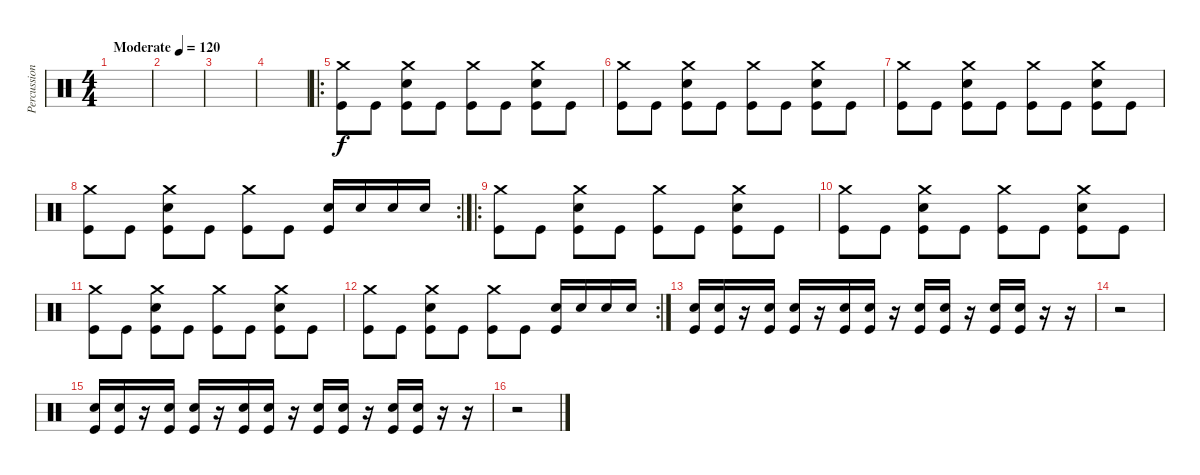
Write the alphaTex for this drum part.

\track ("Percussion" "Percussion") {instrument percussion}
\staff {score}
\articulation defaults
\ts (4 4)
\tempo (120 "Moderate")
\clef neutral
\ks c
|
|
|
|
\ro
("Crash medium (hit)" "Kick (hit)").8 "Kick (hit)".8 ("Crash medium (hit)" "Snare (hit) 2" "Kick (hit)").8 "Kick (hit)".8 ("Crash medium (hit)" "Kick (hit)").8 "Kick (hit)".8 ("Crash medium (hit)" "Snare (hit) 2" "Kick (hit)").8 "Kick (hit)".8 |
("Crash medium (hit)" "Kick (hit)").8 "Kick (hit)".8 ("Crash medium (hit)" "Snare (hit) 2" "Kick (hit)").8 "Kick (hit)".8 ("Crash medium (hit)" "Kick (hit)").8 "Kick (hit)".8 ("Crash medium (hit)" "Snare (hit) 2" "Kick (hit)").8 "Kick (hit)".8 |
("Crash medium (hit)" "Kick (hit)").8 "Kick (hit)".8 ("Crash medium (hit)" "Snare (hit) 2" "Kick (hit)").8 "Kick (hit)".8 ("Crash medium (hit)" "Kick (hit)").8 "Kick (hit)".8 ("Crash medium (hit)" "Snare (hit) 2" "Kick (hit)").8 "Kick (hit)".8 |
\rc 2
("Crash medium (hit)" "Kick (hit)").8 "Kick (hit)".8 ("Crash medium (hit)" "Snare (hit) 2" "Kick (hit)").8 "Kick (hit)".8 ("Crash medium (hit)" "Kick (hit)").8 "Kick (hit)".8 ("Snare (hit) 2" "Kick (hit)").16 "Snare (hit) 2".16 "Snare (hit) 2".16 "Snare (hit) 2".16 |
\ro
("Crash medium (hit)" "Kick (hit)").8 "Kick (hit)".8 ("Crash medium (hit)" "Snare (hit) 2" "Kick (hit)").8 "Kick (hit)".8 ("Crash medium (hit)" "Kick (hit)").8 "Kick (hit)".8 ("Crash medium (hit)" "Snare (hit) 2" "Kick (hit)").8 "Kick (hit)".8 |
("Crash medium (hit)" "Kick (hit)").8 "Kick (hit)".8 ("Crash medium (hit)" "Snare (hit) 2" "Kick (hit)").8 "Kick (hit)".8 ("Crash medium (hit)" "Kick (hit)").8 "Kick (hit)".8 ("Crash medium (hit)" "Snare (hit) 2" "Kick (hit)").8 "Kick (hit)".8 |
("Crash medium (hit)" "Kick (hit)").8 "Kick (hit)".8 ("Crash medium (hit)" "Snare (hit) 2" "Kick (hit)").8 "Kick (hit)".8 ("Crash medium (hit)" "Kick (hit)").8 "Kick (hit)".8 ("Crash medium (hit)" "Snare (hit) 2" "Kick (hit)").8 "Kick (hit)".8 |
\rc 2
("Crash medium (hit)" "Kick (hit)").8 "Kick (hit)".8 ("Crash medium (hit)" "Snare (hit) 2" "Kick (hit)").8 "Kick (hit)".8 ("Crash medium (hit)" "Kick (hit)").8 "Kick (hit)".8 ("Snare (hit) 2" "Kick (hit)").16 "Snare (hit) 2".16 "Snare (hit) 2".16 "Snare (hit) 2".16 |
("Snare (hit) 2" "Kick (hit)").16 ("Snare (hit) 2" "Kick (hit)").16 r.16 ("Snare (hit) 2" "Kick (hit)").16 ("Snare (hit) 2" "Kick (hit)").16 r.16 ("Snare (hit) 2" "Kick (hit)").16 ("Snare (hit) 2" "Kick (hit)").16 r.16 ("Snare (hit) 2" "Kick (hit)").16 ("Snare (hit) 2" "Kick (hit)").16 r.16 ("Snare (hit) 2" "Kick (hit)").16 ("Snare (hit) 2" "Kick (hit)").16 r.16 r.16 |
r.2 |
("Snare (hit) 2" "Kick (hit)").16 ("Snare (hit) 2" "Kick (hit)").16 r.16 ("Snare (hit) 2" "Kick (hit)").16 ("Snare (hit) 2" "Kick (hit)").16 r.16 ("Snare (hit) 2" "Kick (hit)").16 ("Snare (hit) 2" "Kick (hit)").16 r.16 ("Snare (hit) 2" "Kick (hit)").16 ("Snare (hit) 2" "Kick (hit)").16 r.16 ("Snare (hit) 2" "Kick (hit)").16 ("Snare (hit) 2" "Kick (hit)").16 r.16 r.16 |
r.2
